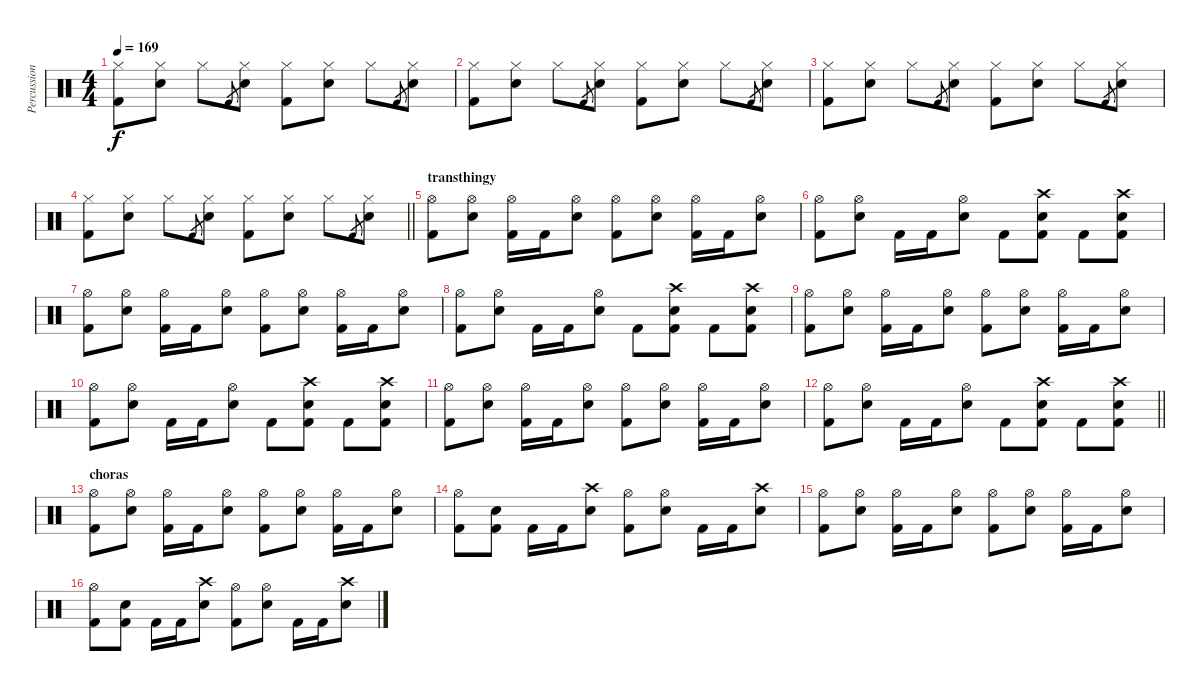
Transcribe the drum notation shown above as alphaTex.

\track ("Percussion" "Percussion") {instrument percussion}
\staff {score}
\articulation defaults
\ts (4 4)
\tempo 169
\clef neutral
\ks c
("Hi-Hat (closed)" "Kick (hit) 2").8{dy f} ("Hi-Hat (closed)" "Electric Snare (hit)").8 "Hi-Hat (closed)".8 "Kick (hit) 2".8{gr} ("Hi-Hat (closed)" "Electric Snare (hit)").8 ("Hi-Hat (closed)" "Kick (hit) 2").8 ("Hi-Hat (closed)" "Electric Snare (hit)").8 "Hi-Hat (closed)".8 "Kick (hit) 2".8{gr} ("Hi-Hat (closed)" "Electric Snare (hit)").8 |
("Hi-Hat (closed)" "Kick (hit) 2").8 ("Hi-Hat (closed)" "Electric Snare (hit)").8 "Hi-Hat (closed)".8 "Kick (hit) 2".8{gr} ("Hi-Hat (closed)" "Electric Snare (hit)").8 ("Hi-Hat (closed)" "Kick (hit) 2").8 ("Hi-Hat (closed)" "Electric Snare (hit)").8 "Hi-Hat (closed)".8 "Kick (hit) 2".8{gr} ("Hi-Hat (closed)" "Electric Snare (hit)").8 |
("Hi-Hat (closed)" "Kick (hit) 2").8 ("Hi-Hat (closed)" "Electric Snare (hit)").8 "Hi-Hat (closed)".8 "Kick (hit) 2".8{gr} ("Hi-Hat (closed)" "Electric Snare (hit)").8 ("Hi-Hat (closed)" "Kick (hit) 2").8 ("Hi-Hat (closed)" "Electric Snare (hit)").8 "Hi-Hat (closed)".8 "Kick (hit) 2".8{gr} ("Hi-Hat (closed)" "Electric Snare (hit)").8 |
\barLineRight lightlight
("Hi-Hat (closed)" "Kick (hit) 2").8 ("Hi-Hat (closed)" "Electric Snare (hit)").8 "Hi-Hat (closed)".8 "Kick (hit) 2".8{gr} ("Hi-Hat (closed)" "Electric Snare (hit)").8 ("Hi-Hat (closed)" "Kick (hit) 2").8 ("Hi-Hat (closed)" "Electric Snare (hit)").8 "Hi-Hat (closed)".8 "Kick (hit) 2".8{gr} ("Hi-Hat (closed)" "Electric Snare (hit)").8 |
\section ("" "transthingy")
("Hi-Hat (open)" "Kick (hit) 2").8 ("Hi-Hat (open)" "Electric Snare (hit)").8 ("Hi-Hat (open)" "Kick (hit) 2").16 "Kick (hit) 2".16 ("Hi-Hat (open)" "Electric Snare (hit)").8 ("Hi-Hat (open)" "Kick (hit) 2").8 ("Hi-Hat (open)" "Electric Snare (hit)").8 ("Hi-Hat (open)" "Kick (hit) 2").16 "Kick (hit) 2".16 ("Hi-Hat (open)" "Electric Snare (hit)").8 |
("Hi-Hat (open)" "Kick (hit) 2").8 ("Hi-Hat (open)" "Electric Snare (hit)").8 "Kick (hit) 2".16 "Kick (hit) 2".16 ("Hi-Hat (open)" "Electric Snare (hit)").8 "Kick (hit) 2".8 ("Crash high (hit)" "Electric Snare (hit)" "Kick (hit) 2").8 "Kick (hit) 2".8 ("Crash high (hit)" "Electric Snare (hit)" "Kick (hit) 2").8 |
("Hi-Hat (open)" "Kick (hit) 2").8 ("Hi-Hat (open)" "Electric Snare (hit)").8 ("Hi-Hat (open)" "Kick (hit) 2").16 "Kick (hit) 2".16 ("Hi-Hat (open)" "Electric Snare (hit)").8 ("Hi-Hat (open)" "Kick (hit) 2").8 ("Hi-Hat (open)" "Electric Snare (hit)").8 ("Hi-Hat (open)" "Kick (hit) 2").16 "Kick (hit) 2".16 ("Hi-Hat (open)" "Electric Snare (hit)").8 |
("Hi-Hat (open)" "Kick (hit) 2").8 ("Hi-Hat (open)" "Electric Snare (hit)").8 "Kick (hit) 2".16 "Kick (hit) 2".16 ("Hi-Hat (open)" "Electric Snare (hit)").8 "Kick (hit) 2".8 ("Crash high (hit)" "Electric Snare (hit)" "Kick (hit) 2").8 "Kick (hit) 2".8 ("Crash high (hit)" "Electric Snare (hit)" "Kick (hit) 2").8 |
("Hi-Hat (open)" "Kick (hit) 2").8 ("Hi-Hat (open)" "Electric Snare (hit)").8 ("Hi-Hat (open)" "Kick (hit) 2").16 "Kick (hit) 2".16 ("Hi-Hat (open)" "Electric Snare (hit)").8 ("Hi-Hat (open)" "Kick (hit) 2").8 ("Hi-Hat (open)" "Electric Snare (hit)").8 ("Hi-Hat (open)" "Kick (hit) 2").16 "Kick (hit) 2".16 ("Hi-Hat (open)" "Electric Snare (hit)").8 |
("Hi-Hat (open)" "Kick (hit) 2").8 ("Hi-Hat (open)" "Electric Snare (hit)").8 "Kick (hit) 2".16 "Kick (hit) 2".16 ("Hi-Hat (open)" "Electric Snare (hit)").8 "Kick (hit) 2".8 ("Crash high (hit)" "Electric Snare (hit)" "Kick (hit) 2").8 "Kick (hit) 2".8 ("Crash high (hit)" "Electric Snare (hit)" "Kick (hit) 2").8 |
("Hi-Hat (open)" "Kick (hit) 2").8 ("Hi-Hat (open)" "Electric Snare (hit)").8 ("Hi-Hat (open)" "Kick (hit) 2").16 "Kick (hit) 2".16 ("Hi-Hat (open)" "Electric Snare (hit)").8 ("Hi-Hat (open)" "Kick (hit) 2").8 ("Hi-Hat (open)" "Electric Snare (hit)").8 ("Hi-Hat (open)" "Kick (hit) 2").16 "Kick (hit) 2".16 ("Hi-Hat (open)" "Electric Snare (hit)").8 |
\barLineRight lightlight
("Hi-Hat (open)" "Kick (hit) 2").8 ("Hi-Hat (open)" "Electric Snare (hit)").8 "Kick (hit) 2".16 "Kick (hit) 2".16 ("Hi-Hat (open)" "Electric Snare (hit)").8 "Kick (hit) 2".8 ("Crash high (hit)" "Electric Snare (hit)" "Kick (hit) 2").8 "Kick (hit) 2".8 ("Crash high (hit)" "Electric Snare (hit)" "Kick (hit) 2").8 |
\section ("" "choras")
("Hi-Hat (open)" "Kick (hit) 2").8 ("Hi-Hat (open)" "Electric Snare (hit)").8 ("Hi-Hat (open)" "Kick (hit) 2").16 "Kick (hit) 2".16 ("Hi-Hat (open)" "Electric Snare (hit)").8 ("Hi-Hat (open)" "Kick (hit) 2").8 ("Hi-Hat (open)" "Electric Snare (hit)").8 ("Hi-Hat (open)" "Kick (hit) 2").16 "Kick (hit) 2".16 ("Hi-Hat (open)" "Electric Snare (hit)").8 |
("Hi-Hat (open)" "Kick (hit) 2").8 ("Kick (hit) 2" "Electric Snare (hit)").8 "Kick (hit) 2".16 "Kick (hit) 2".16 ("Crash high (hit)" "Electric Snare (hit)").8 ("Hi-Hat (open)" "Kick (hit) 2").8 ("Hi-Hat (open)" "Electric Snare (hit)").8 "Kick (hit) 2".16 "Kick (hit) 2".16 ("Crash high (hit)" "Electric Snare (hit)").8 |
("Hi-Hat (open)" "Kick (hit) 2").8 ("Hi-Hat (open)" "Electric Snare (hit)").8 ("Hi-Hat (open)" "Kick (hit) 2").16 "Kick (hit) 2".16 ("Hi-Hat (open)" "Electric Snare (hit)").8 ("Hi-Hat (open)" "Kick (hit) 2").8 ("Hi-Hat (open)" "Electric Snare (hit)").8 ("Hi-Hat (open)" "Kick (hit) 2").16 "Kick (hit) 2".16 ("Hi-Hat (open)" "Electric Snare (hit)").8 |
("Hi-Hat (open)" "Kick (hit) 2").8 ("Kick (hit) 2" "Electric Snare (hit)").8 "Kick (hit) 2".16 "Kick (hit) 2".16 ("Crash high (hit)" "Electric Snare (hit)").8 ("Hi-Hat (open)" "Kick (hit) 2").8 ("Hi-Hat (open)" "Electric Snare (hit)").8 "Kick (hit) 2".16 "Kick (hit) 2".16 ("Crash high (hit)" "Electric Snare (hit)").8
